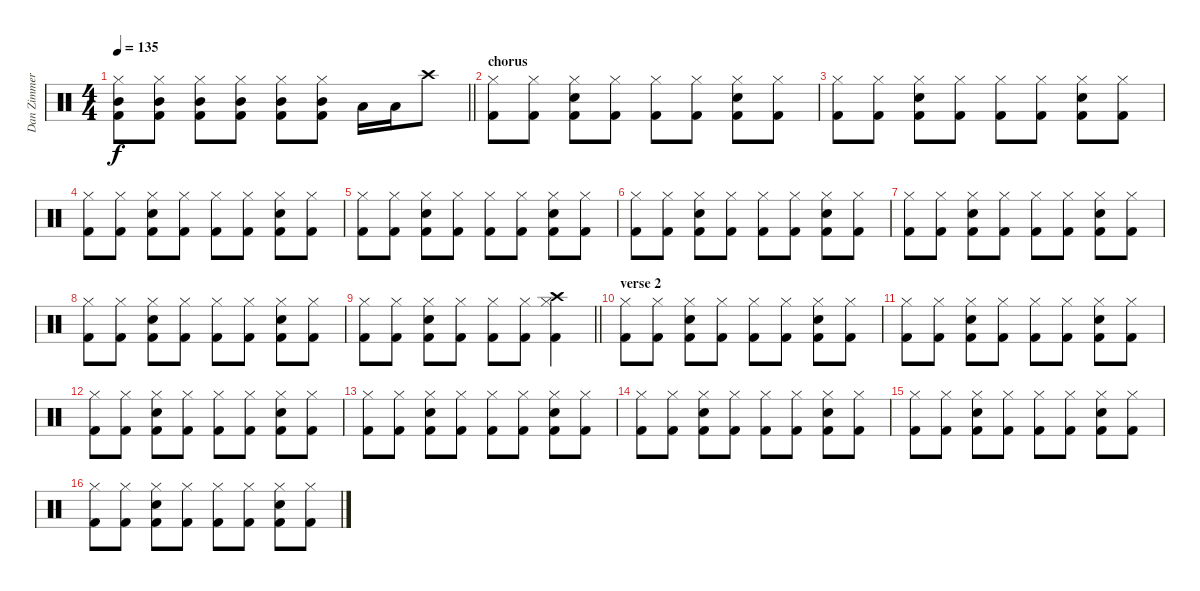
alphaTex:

\track ("Dan Zimmerman" "Dan Zimmer") {instrument percussion}
\staff {score}
\articulation defaults
\ts (4 4)
\tempo 135
\clef neutral
\barLineRight lightlight
\ks c
("Hi-Hat (closed)" "Kick (hit) 2" "Mid Tom (hit)").8{dy f} ("Hi-Hat (closed)" "Kick (hit) 2" "Mid Tom (hit)").8 ("Hi-Hat (closed)" "Kick (hit) 2" "Mid Tom (hit)").8 ("Hi-Hat (closed)" "Kick (hit) 2" "Mid Tom (hit)").8 ("Hi-Hat (closed)" "Kick (hit) 2" "Mid Tom (hit)").8 ("Hi-Hat (closed)" "Kick (hit) 2" "Mid Tom (hit)").8 "Low Floor Tom (hit)".16 "Low Floor Tom (hit)".16 "Crash high (hit)".8 |
\section ("" "chorus")
("Hi-Hat (closed)" "Kick (hit) 2").8 ("Hi-Hat (closed)" "Kick (hit) 2").8 ("Snare (hit) 2" "Hi-Hat (closed)" "Kick (hit) 2").8 ("Hi-Hat (closed)" "Kick (hit) 2").8 ("Hi-Hat (closed)" "Kick (hit) 2").8 ("Hi-Hat (closed)" "Kick (hit) 2").8 ("Snare (hit) 2" "Hi-Hat (closed)" "Kick (hit) 2").8 ("Hi-Hat (closed)" "Kick (hit) 2").8 |
("Hi-Hat (closed)" "Kick (hit) 2").8 ("Hi-Hat (closed)" "Kick (hit) 2").8 ("Snare (hit) 2" "Hi-Hat (closed)" "Kick (hit) 2").8 ("Hi-Hat (closed)" "Kick (hit) 2").8 ("Hi-Hat (closed)" "Kick (hit) 2").8 ("Hi-Hat (closed)" "Kick (hit) 2").8 ("Snare (hit) 2" "Hi-Hat (closed)" "Kick (hit) 2").8 ("Hi-Hat (closed)" "Kick (hit) 2").8 |
("Hi-Hat (closed)" "Kick (hit) 2").8 ("Hi-Hat (closed)" "Kick (hit) 2").8 ("Snare (hit) 2" "Hi-Hat (closed)" "Kick (hit) 2").8 ("Hi-Hat (closed)" "Kick (hit) 2").8 ("Hi-Hat (closed)" "Kick (hit) 2").8 ("Hi-Hat (closed)" "Kick (hit) 2").8 ("Snare (hit) 2" "Hi-Hat (closed)" "Kick (hit) 2").8 ("Hi-Hat (closed)" "Kick (hit) 2").8 |
("Hi-Hat (closed)" "Kick (hit) 2").8 ("Hi-Hat (closed)" "Kick (hit) 2").8 ("Snare (hit) 2" "Hi-Hat (closed)" "Kick (hit) 2").8 ("Hi-Hat (closed)" "Kick (hit) 2").8 ("Hi-Hat (closed)" "Kick (hit) 2").8 ("Hi-Hat (closed)" "Kick (hit) 2").8 ("Snare (hit) 2" "Hi-Hat (closed)" "Kick (hit) 2").8 ("Hi-Hat (closed)" "Kick (hit) 2").8 |
("Hi-Hat (closed)" "Kick (hit) 2").8 ("Hi-Hat (closed)" "Kick (hit) 2").8 ("Snare (hit) 2" "Hi-Hat (closed)" "Kick (hit) 2").8 ("Hi-Hat (closed)" "Kick (hit) 2").8 ("Hi-Hat (closed)" "Kick (hit) 2").8 ("Hi-Hat (closed)" "Kick (hit) 2").8 ("Snare (hit) 2" "Hi-Hat (closed)" "Kick (hit) 2").8 ("Hi-Hat (closed)" "Kick (hit) 2").8 |
("Hi-Hat (closed)" "Kick (hit) 2").8 ("Hi-Hat (closed)" "Kick (hit) 2").8 ("Snare (hit) 2" "Hi-Hat (closed)" "Kick (hit) 2").8 ("Hi-Hat (closed)" "Kick (hit) 2").8 ("Hi-Hat (closed)" "Kick (hit) 2").8 ("Hi-Hat (closed)" "Kick (hit) 2").8 ("Snare (hit) 2" "Hi-Hat (closed)" "Kick (hit) 2").8 ("Hi-Hat (closed)" "Kick (hit) 2").8 |
("Hi-Hat (closed)" "Kick (hit) 2").8 ("Hi-Hat (closed)" "Kick (hit) 2").8 ("Snare (hit) 2" "Hi-Hat (closed)" "Kick (hit) 2").8 ("Hi-Hat (closed)" "Kick (hit) 2").8 ("Hi-Hat (closed)" "Kick (hit) 2").8 ("Hi-Hat (closed)" "Kick (hit) 2").8 ("Snare (hit) 2" "Hi-Hat (closed)" "Kick (hit) 2").8 ("Hi-Hat (closed)" "Kick (hit) 2").8 |
\barLineRight lightlight
("Hi-Hat (closed)" "Kick (hit) 2").8 ("Hi-Hat (closed)" "Kick (hit) 2").8 ("Snare (hit) 2" "Hi-Hat (closed)" "Kick (hit) 2").8 ("Hi-Hat (closed)" "Kick (hit) 2").8 ("Hi-Hat (closed)" "Kick (hit) 2").8 ("Hi-Hat (closed)" "Kick (hit) 2").8 ("Crash high (hit)" "Hi-Hat (closed)" "Kick (hit) 2").4 |
\section ("" "verse 2")
("Hi-Hat (closed)" "Kick (hit) 2").8 ("Hi-Hat (closed)" "Kick (hit) 2").8 ("Snare (hit) 2" "Hi-Hat (closed)" "Kick (hit) 2").8 ("Hi-Hat (closed)" "Kick (hit) 2").8 ("Hi-Hat (closed)" "Kick (hit) 2").8 ("Hi-Hat (closed)" "Kick (hit) 2").8 ("Snare (hit) 2" "Hi-Hat (closed)" "Kick (hit) 2").8 ("Hi-Hat (closed)" "Kick (hit) 2").8 |
("Hi-Hat (closed)" "Kick (hit) 2").8 ("Hi-Hat (closed)" "Kick (hit) 2").8 ("Snare (hit) 2" "Hi-Hat (closed)" "Kick (hit) 2").8 ("Hi-Hat (closed)" "Kick (hit) 2").8 ("Hi-Hat (closed)" "Kick (hit) 2").8 ("Hi-Hat (closed)" "Kick (hit) 2").8 ("Snare (hit) 2" "Hi-Hat (closed)" "Kick (hit) 2").8 ("Hi-Hat (closed)" "Kick (hit) 2").8 |
("Hi-Hat (closed)" "Kick (hit) 2").8 ("Hi-Hat (closed)" "Kick (hit) 2").8 ("Snare (hit) 2" "Hi-Hat (closed)" "Kick (hit) 2").8 ("Hi-Hat (closed)" "Kick (hit) 2").8 ("Hi-Hat (closed)" "Kick (hit) 2").8 ("Hi-Hat (closed)" "Kick (hit) 2").8 ("Snare (hit) 2" "Hi-Hat (closed)" "Kick (hit) 2").8 ("Hi-Hat (closed)" "Kick (hit) 2").8 |
("Hi-Hat (closed)" "Kick (hit) 2").8 ("Hi-Hat (closed)" "Kick (hit) 2").8 ("Snare (hit) 2" "Hi-Hat (closed)" "Kick (hit) 2").8 ("Hi-Hat (closed)" "Kick (hit) 2").8 ("Hi-Hat (closed)" "Kick (hit) 2").8 ("Hi-Hat (closed)" "Kick (hit) 2").8 ("Snare (hit) 2" "Hi-Hat (closed)" "Kick (hit) 2").8 ("Hi-Hat (closed)" "Kick (hit) 2").8 |
("Hi-Hat (closed)" "Kick (hit) 2").8 ("Hi-Hat (closed)" "Kick (hit) 2").8 ("Snare (hit) 2" "Hi-Hat (closed)" "Kick (hit) 2").8 ("Hi-Hat (closed)" "Kick (hit) 2").8 ("Hi-Hat (closed)" "Kick (hit) 2").8 ("Hi-Hat (closed)" "Kick (hit) 2").8 ("Snare (hit) 2" "Hi-Hat (closed)" "Kick (hit) 2").8 ("Hi-Hat (closed)" "Kick (hit) 2").8 |
("Hi-Hat (closed)" "Kick (hit) 2").8 ("Hi-Hat (closed)" "Kick (hit) 2").8 ("Snare (hit) 2" "Hi-Hat (closed)" "Kick (hit) 2").8 ("Hi-Hat (closed)" "Kick (hit) 2").8 ("Hi-Hat (closed)" "Kick (hit) 2").8 ("Hi-Hat (closed)" "Kick (hit) 2").8 ("Snare (hit) 2" "Hi-Hat (closed)" "Kick (hit) 2").8 ("Hi-Hat (closed)" "Kick (hit) 2").8 |
("Hi-Hat (closed)" "Kick (hit) 2").8 ("Hi-Hat (closed)" "Kick (hit) 2").8 ("Snare (hit) 2" "Hi-Hat (closed)" "Kick (hit) 2").8 ("Hi-Hat (closed)" "Kick (hit) 2").8 ("Hi-Hat (closed)" "Kick (hit) 2").8 ("Hi-Hat (closed)" "Kick (hit) 2").8 ("Snare (hit) 2" "Hi-Hat (closed)" "Kick (hit) 2").8 ("Hi-Hat (closed)" "Kick (hit) 2").8
